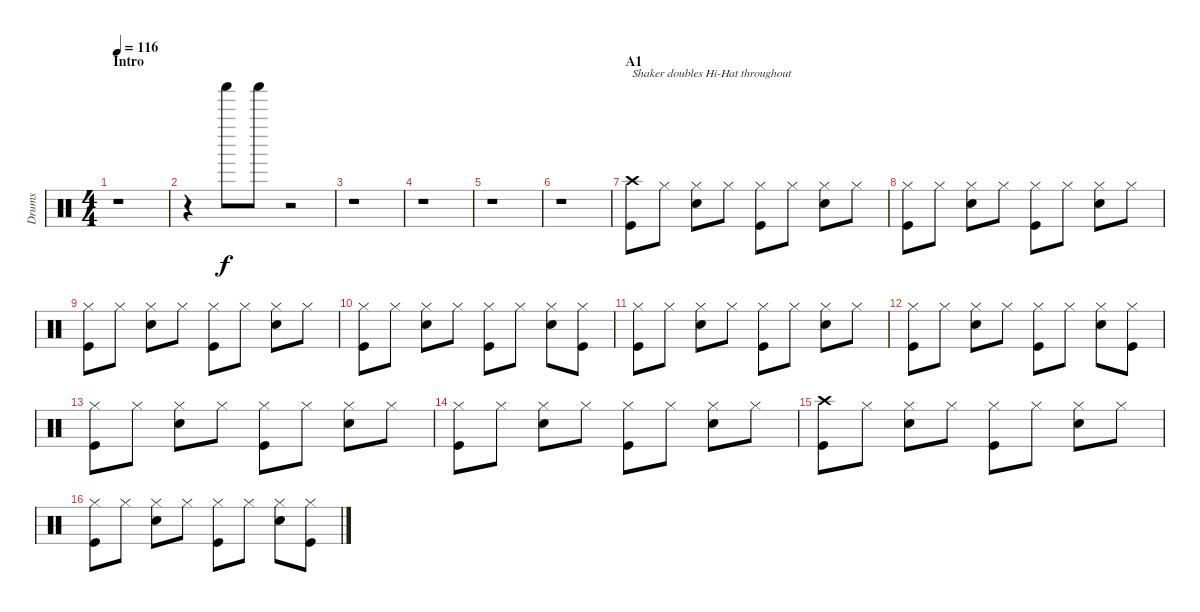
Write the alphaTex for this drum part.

\track ("Drums" "Drums") {instrument percussion}
\staff {score}
\articulation defaults
\ts (4 4)
\section ("" "Intro")
\tempo 116
\clef neutral
\ks c
r.1{dy f} |
r.4 "Shaker (hit)".8 "Shaker (hit)".8 r.2 |
r.1 |
r.1 |
r.1 |
r.1 |
\section ("" "A1")
("Crash high (hit)" "Kick (hit)").8{txt "Shaker doubles Hi-Hat throughout"} "Hi-Hat (closed)".8 ("Hi-Hat (closed)" "Snare (hit) 2").8 "Hi-Hat (closed)".8 ("Hi-Hat (closed)" "Kick (hit)").8 "Hi-Hat (closed)".8 ("Hi-Hat (closed)" "Snare (hit) 2").8 "Hi-Hat (closed)".8 |
("Hi-Hat (closed)" "Kick (hit)").8 "Hi-Hat (closed)".8 ("Hi-Hat (closed)" "Snare (hit) 2").8 "Hi-Hat (closed)".8 ("Hi-Hat (closed)" "Kick (hit)").8 "Hi-Hat (closed)".8 ("Hi-Hat (closed)" "Snare (hit) 2").8 "Hi-Hat (closed)".8 |
("Hi-Hat (closed)" "Kick (hit)").8 "Hi-Hat (closed)".8 ("Hi-Hat (closed)" "Snare (hit) 2").8 "Hi-Hat (closed)".8 ("Hi-Hat (closed)" "Kick (hit)").8 "Hi-Hat (closed)".8 ("Hi-Hat (closed)" "Snare (hit) 2").8 "Hi-Hat (closed)".8 |
("Hi-Hat (closed)" "Kick (hit)").8 "Hi-Hat (closed)".8 ("Hi-Hat (closed)" "Snare (hit) 2").8 "Hi-Hat (closed)".8 ("Hi-Hat (closed)" "Kick (hit)").8 "Hi-Hat (closed)".8 ("Hi-Hat (closed)" "Snare (hit) 2").8 ("Hi-Hat (closed)" "Kick (hit)").8 |
("Hi-Hat (closed)" "Kick (hit)").8 "Hi-Hat (closed)".8 ("Hi-Hat (closed)" "Snare (hit) 2").8 "Hi-Hat (closed)".8 ("Hi-Hat (closed)" "Kick (hit)").8 "Hi-Hat (closed)".8 ("Hi-Hat (closed)" "Snare (hit) 2").8 "Hi-Hat (closed)".8 |
("Hi-Hat (closed)" "Kick (hit)").8 "Hi-Hat (closed)".8 ("Hi-Hat (closed)" "Snare (hit) 2").8 "Hi-Hat (closed)".8 ("Hi-Hat (closed)" "Kick (hit)").8 "Hi-Hat (closed)".8 ("Hi-Hat (closed)" "Snare (hit) 2").8 ("Hi-Hat (closed)" "Kick (hit)").8 |
("Hi-Hat (closed)" "Kick (hit)").8 "Hi-Hat (closed)".8 ("Hi-Hat (closed)" "Snare (hit) 2").8 "Hi-Hat (closed)".8 ("Hi-Hat (closed)" "Kick (hit)").8 "Hi-Hat (closed)".8 ("Hi-Hat (closed)" "Snare (hit) 2").8 "Hi-Hat (closed)".8 |
("Hi-Hat (closed)" "Kick (hit)").8 "Hi-Hat (closed)".8 ("Hi-Hat (closed)" "Snare (hit) 2").8 "Hi-Hat (closed)".8 ("Hi-Hat (closed)" "Kick (hit)").8 "Hi-Hat (closed)".8 ("Hi-Hat (closed)" "Snare (hit) 2").8 "Hi-Hat (closed)".8 |
("Crash high (hit)" "Kick (hit)").8 "Hi-Hat (closed)".8 ("Hi-Hat (closed)" "Snare (hit) 2").8 "Hi-Hat (closed)".8 ("Hi-Hat (closed)" "Kick (hit)").8 "Hi-Hat (closed)".8 ("Hi-Hat (closed)" "Snare (hit) 2").8 "Hi-Hat (closed)".8 |
("Hi-Hat (closed)" "Kick (hit)").8 "Hi-Hat (closed)".8 ("Hi-Hat (closed)" "Snare (hit) 2").8 "Hi-Hat (closed)".8 ("Hi-Hat (closed)" "Kick (hit)").8 "Hi-Hat (closed)".8 ("Hi-Hat (closed)" "Snare (hit) 2").8 ("Hi-Hat (closed)" "Kick (hit)").8
